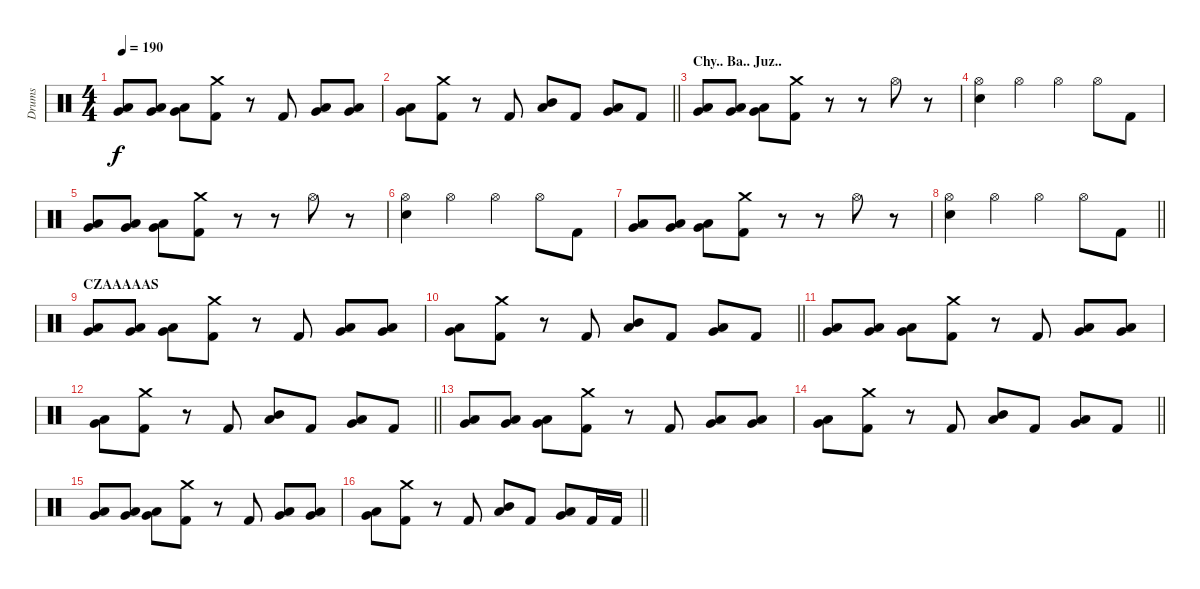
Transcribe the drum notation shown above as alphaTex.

\track ("Drums" "Drums") {instrument percussion}
\staff {score}
\articulation defaults
\ts (4 4)
\tempo 190
\clef neutral
\ks c
("Very Low Tom (hit)" "Low Tom (hit)").8{dy f} ("Very Low Tom (hit)" "Low Tom (hit)").8 ("Very Low Tom (hit)" "Low Tom (hit)").8 ("Crash medium (hit)" "Kick (hit) 2").8 r.8 "Kick (hit) 2".8 ("Very Low Tom (hit)" "Low Tom (hit)").8 ("Very Low Tom (hit)" "Low Tom (hit)").8 |
\barLineRight lightlight
("Very Low Tom (hit)" "Low Tom (hit)").8 ("Crash medium (hit)" "Kick (hit) 2").8 r.8 "Kick (hit) 2".8 ("Mid Tom (hit)" "Low Tom (hit)").8 "Kick (hit) 2".8 ("Low Tom (hit)" "Very Low Tom (hit)").8 "Kick (hit) 2".8 |
\section ("" "Chy.. Ba.. Juz..")
("Very Low Tom (hit)" "Low Tom (hit)").8 ("Very Low Tom (hit)" "Low Tom (hit)").8 ("Very Low Tom (hit)" "Low Tom (hit)").8 ("Crash medium (hit)" "Kick (hit) 2").8 r.8 r.8 "Hi-Hat (open)".8 r.8 |
("Hi-Hat (open)" "Snare (hit) 2").4 "Hi-Hat (open)".4 "Hi-Hat (open)".4 "Hi-Hat (open)".8 "Kick (hit) 2".8 |
("Very Low Tom (hit)" "Low Tom (hit)").8 ("Very Low Tom (hit)" "Low Tom (hit)").8 ("Very Low Tom (hit)" "Low Tom (hit)").8 ("Crash medium (hit)" "Kick (hit) 2").8 r.8 r.8 "Hi-Hat (open)".8 r.8 |
("Hi-Hat (open)" "Snare (hit) 2").4 "Hi-Hat (open)".4 "Hi-Hat (open)".4 "Hi-Hat (open)".8 "Kick (hit) 2".8 |
("Very Low Tom (hit)" "Low Tom (hit)").8 ("Very Low Tom (hit)" "Low Tom (hit)").8 ("Very Low Tom (hit)" "Low Tom (hit)").8 ("Crash medium (hit)" "Kick (hit) 2").8 r.8 r.8 "Hi-Hat (open)".8 r.8 |
\barLineRight lightlight
("Hi-Hat (open)" "Snare (hit) 2").4 "Hi-Hat (open)".4 "Hi-Hat (open)".4 "Hi-Hat (open)".8 "Kick (hit) 2".8 |
\section ("" "CZAAAAAS")
("Very Low Tom (hit)" "Low Tom (hit)").8 ("Very Low Tom (hit)" "Low Tom (hit)").8 ("Very Low Tom (hit)" "Low Tom (hit)").8 ("Crash medium (hit)" "Kick (hit) 2").8 r.8 "Kick (hit) 2".8 ("Very Low Tom (hit)" "Low Tom (hit)").8 ("Very Low Tom (hit)" "Low Tom (hit)").8 |
\barLineRight lightlight
("Very Low Tom (hit)" "Low Tom (hit)").8 ("Crash medium (hit)" "Kick (hit) 2").8 r.8 "Kick (hit) 2".8 ("Mid Tom (hit)" "Low Tom (hit)").8 "Kick (hit) 2".8 ("Low Tom (hit)" "Very Low Tom (hit)").8 "Kick (hit) 2".8 |
("Very Low Tom (hit)" "Low Tom (hit)").8 ("Very Low Tom (hit)" "Low Tom (hit)").8 ("Very Low Tom (hit)" "Low Tom (hit)").8 ("Crash medium (hit)" "Kick (hit) 2").8 r.8 "Kick (hit) 2".8 ("Very Low Tom (hit)" "Low Tom (hit)").8 ("Very Low Tom (hit)" "Low Tom (hit)").8 |
\barLineRight lightlight
("Very Low Tom (hit)" "Low Tom (hit)").8 ("Crash medium (hit)" "Kick (hit) 2").8 r.8 "Kick (hit) 2".8 ("Mid Tom (hit)" "Low Tom (hit)").8 "Kick (hit) 2".8 ("Low Tom (hit)" "Very Low Tom (hit)").8 "Kick (hit) 2".8 |
("Very Low Tom (hit)" "Low Tom (hit)").8 ("Very Low Tom (hit)" "Low Tom (hit)").8 ("Very Low Tom (hit)" "Low Tom (hit)").8 ("Crash medium (hit)" "Kick (hit) 2").8 r.8 "Kick (hit) 2".8 ("Very Low Tom (hit)" "Low Tom (hit)").8 ("Very Low Tom (hit)" "Low Tom (hit)").8 |
\barLineRight lightlight
("Very Low Tom (hit)" "Low Tom (hit)").8 ("Crash medium (hit)" "Kick (hit) 2").8 r.8 "Kick (hit) 2".8 ("Mid Tom (hit)" "Low Tom (hit)").8 "Kick (hit) 2".8 ("Low Tom (hit)" "Very Low Tom (hit)").8 "Kick (hit) 2".8 |
("Very Low Tom (hit)" "Low Tom (hit)").8 ("Very Low Tom (hit)" "Low Tom (hit)").8 ("Very Low Tom (hit)" "Low Tom (hit)").8 ("Crash medium (hit)" "Kick (hit) 2").8 r.8 "Kick (hit) 2".8 ("Very Low Tom (hit)" "Low Tom (hit)").8 ("Very Low Tom (hit)" "Low Tom (hit)").8 |
\barLineRight lightlight
("Very Low Tom (hit)" "Low Tom (hit)").8 ("Crash medium (hit)" "Kick (hit) 2").8 r.8 "Kick (hit) 2".8 ("Mid Tom (hit)" "Low Tom (hit)").8 "Kick (hit) 2".8 ("Low Tom (hit)" "Very Low Tom (hit)").8 "Kick (hit) 2".16 "Kick (hit) 2".16
